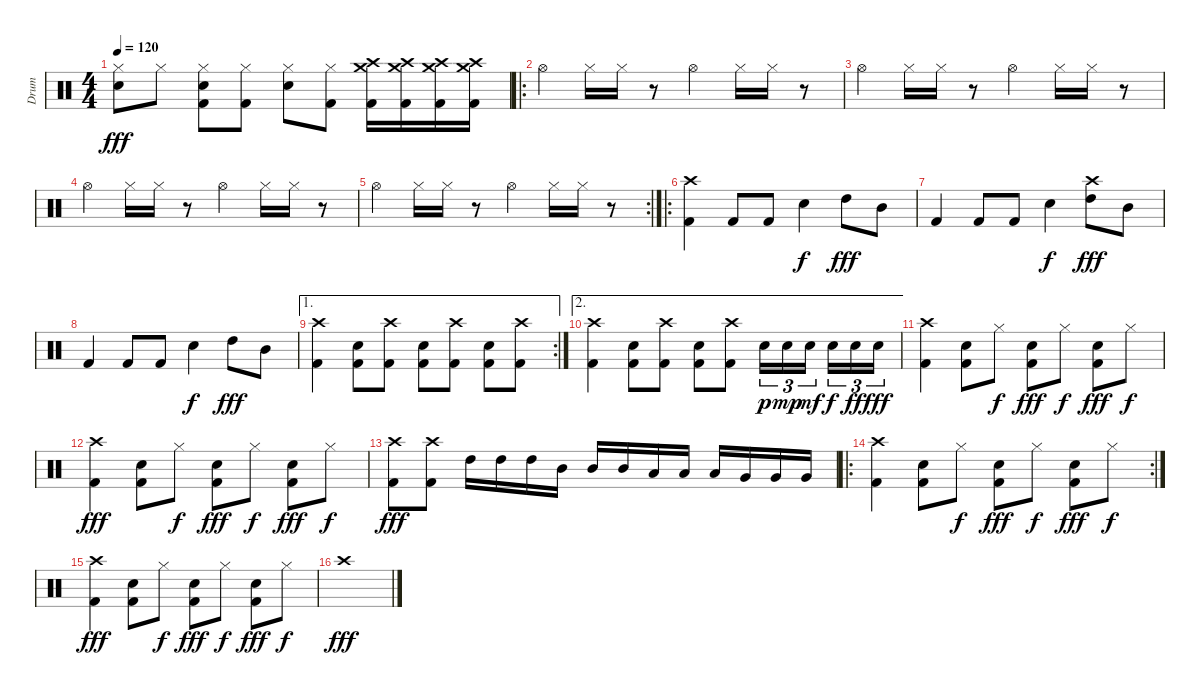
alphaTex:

\track ("Drum" "Drum") {instrument percussion}
\staff {score}
\articulation defaults
\ts (4 4)
\tempo 120
\clef neutral
\ks c
("Hi-Hat (closed)" "Electric Snare (hit)").8{dy fff} "Hi-Hat (closed)".8 ("Hi-Hat (closed)" "Electric Snare (hit)" "Kick (hit) 2").8 ("Hi-Hat (closed)" "Kick (hit) 2").8 ("Hi-Hat (closed)" "Electric Snare (hit)").8 ("Hi-Hat (closed)" "Kick (hit) 2").8 ("Crash medium (hit)" "Crash high (hit)" "Kick (hit) 2").16 ("Crash medium (hit)" "Crash high (hit)" "Kick (hit) 2").16 ("Crash medium (hit)" "Crash high (hit)" "Kick (hit) 2").16 ("Crash medium (hit)" "Crash high (hit)" "Kick (hit) 2").16 |
\ro "Hi-Hat (open)".4 "Hi-Hat (closed)".16 "Hi-Hat (closed)".16
r.8 "Hi-Hat (open)".4 "Hi-Hat (closed)".16 "Hi-Hat (closed)".16 r.8 |
"Hi-Hat (open)".4 "Hi-Hat (closed)".16 "Hi-Hat (closed)".16 r.8 "Hi-Hat (open)".4 "Hi-Hat (closed)".16 "Hi-Hat (closed)".16 r.8 |
"Hi-Hat (open)".4 "Hi-Hat (closed)".16 "Hi-Hat (closed)".16 r.8 "Hi-Hat (open)".4 "Hi-Hat (closed)".16 "Hi-Hat (closed)".16 r.8 |
\rc 2 "Hi-Hat (open)".4 "Hi-Hat (closed)".16 "Hi-Hat (closed)".16
r.8 "Hi-Hat (open)".4 "Hi-Hat (closed)".16 "Hi-Hat (closed)".16 r.8 |
\ro
("Crash high (hit)" "Kick (hit) 2").4 "Kick (hit) 2".8 "Kick (hit) 2".8 "Electric Snare (hit)".4{dy f} "High Tom (hit)".8{dy fff} "Mid Tom (hit)".8 |
"Kick (hit) 2".4 "Kick (hit) 2".8 "Kick (hit) 2".8 "Electric Snare (hit)".4{dy f} ("Crash high (hit)" "High Tom (hit)").8{dy fff} "Mid Tom (hit)".8 |
"Kick (hit) 2".4 "Kick (hit) 2".8 "Kick (hit) 2".8 "Electric Snare (hit)".4{dy f} "High Tom (hit)".8{dy fff} "Mid Tom (hit)".8 |
\ae 1
\rc 2
("Crash high (hit)" "Kick (hit) 2").4 ("Electric Snare (hit)" "Kick (hit) 2").8 ("Crash high (hit)" "Kick (hit) 2").8 ("Electric Snare (hit)" "Kick (hit) 2").8 ("Crash high (hit)" "Kick (hit) 2").8 ("Electric Snare (hit)" "Kick (hit) 2").8 ("Crash high (hit)" "Kick (hit) 2").8 |
\ae 2
("Crash high (hit)" "Kick (hit) 2").4 ("Electric Snare (hit)" "Kick (hit) 2").8 ("Crash high (hit)" "Kick (hit) 2").8 ("Electric Snare (hit)" "Kick (hit) 2").8 ("Crash high (hit)" "Kick (hit) 2").8 "Electric Snare (hit)".16{tu (3 2) dy p} "Electric Snare (hit)".16{tu (3 2) dy mp} "Electric Snare (hit)".16{tu (3 2) dy mf} "Electric Snare (hit)".16{tu (3 2) dy f} "Electric Snare (hit)".16{tu (3 2) dy ff} "Electric Snare (hit)".16{tu (3 2) dy fff} |
("Crash high (hit)" "Kick (hit) 2").4 ("Electric Snare (hit)" "Kick (hit) 2").8 "Hi-Hat (closed)".8{dy f} ("Electric Snare (hit)" "Kick (hit) 2").8{dy fff} "Hi-Hat (closed)".8{dy f} ("Electric Snare (hit)" "Kick (hit) 2").8{dy fff} "Hi-Hat (closed)".8{dy f} |
("Crash high (hit)" "Kick (hit) 2").4{dy fff} ("Electric Snare (hit)" "Kick (hit) 2").8 "Hi-Hat (closed)".8{dy f} ("Electric Snare (hit)" "Kick (hit) 2").8{dy fff} "Hi-Hat (closed)".8{dy f} ("Electric Snare (hit)" "Kick (hit) 2").8{dy fff} "Hi-Hat (closed)".8{dy f} |
("Crash high (hit)" "Kick (hit) 2").8{dy fff} ("Crash high (hit)" "Kick (hit) 2").8 "High Tom (hit)".16 "High Tom (hit)".16 "High Tom (hit)".16 "Mid Tom (hit)".16 "Mid Tom (hit)".16 "Mid Tom (hit)".16 "Low Tom (hit)".16 "Low Tom (hit)".16 "Low Tom (hit)".16 "Very Low Tom (hit)".16 "Very Low Tom (hit)".16 "Very Low Tom (hit)".16 |
\ro
\rc 2
("Crash high (hit)" "Kick (hit) 2").4 ("Electric Snare (hit)" "Kick (hit) 2").8 "Hi-Hat (closed)".8{dy f} ("Electric Snare (hit)" "Kick (hit) 2").8{dy fff} "Hi-Hat (closed)".8{dy f} ("Electric Snare (hit)" "Kick (hit) 2").8{dy fff} "Hi-Hat (closed)".8{dy f} |
("Crash high (hit)" "Kick (hit) 2").4{dy fff} ("Electric Snare (hit)" "Kick (hit) 2").8 "Hi-Hat (closed)".8{dy f} ("Electric Snare (hit)" "Kick (hit) 2").8{dy fff} "Hi-Hat (closed)".8{dy f} ("Electric Snare (hit)" "Kick (hit) 2").8{dy fff} "Hi-Hat (closed)".8{dy f} |
"Crash high (hit)".1{dy fff}
